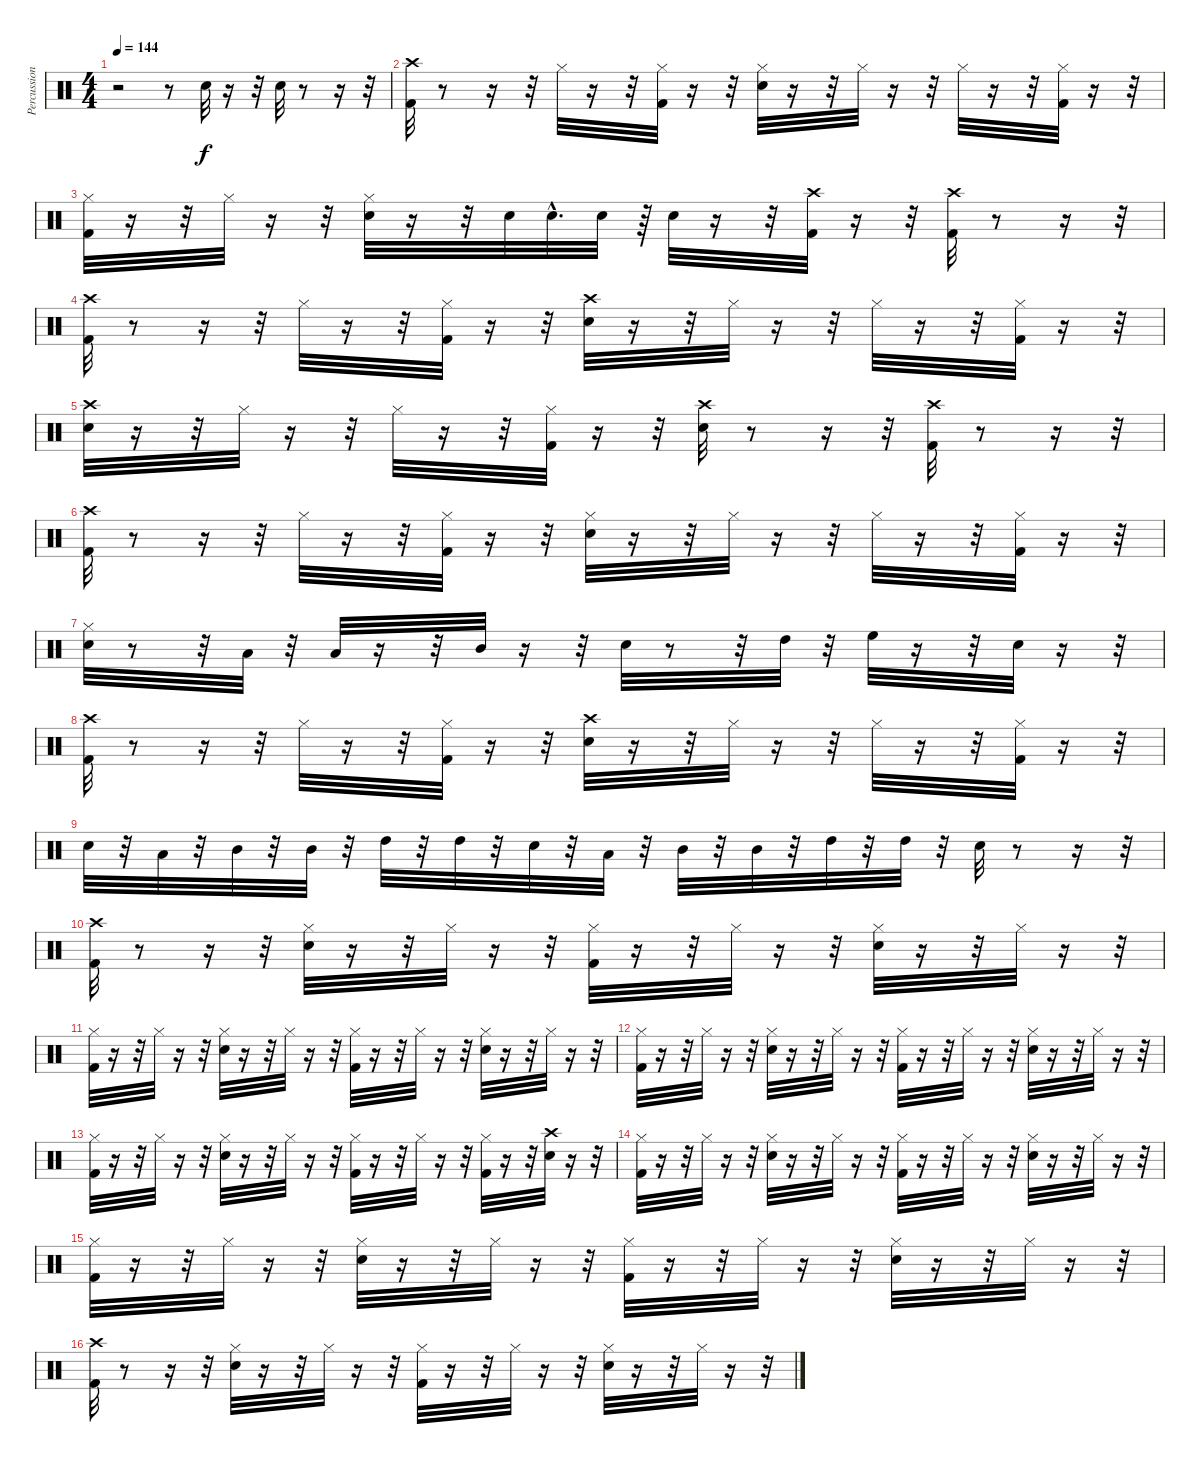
\track ("Percussion" "Percussion") {instrument percussion}
\staff {score}
\articulation defaults
\ts (4 4)
\tempo 144
\clef neutral
\ks c
r.2{dy f} r.8 "Snare (hit) 2".32 r.16 r.32 "Snare (hit) 2".32 r.8 r.16 r.32 |
("Crash high (hit)" "Kick (hit) 2").32 r.8 r.16 r.32 "Hi-Hat (closed)".32 r.16 r.32 ("Hi-Hat (closed)" "Kick (hit) 2").32 r.16 r.32 ("Snare (hit) 2" "Hi-Hat (closed)").32 r.16 r.32 "Hi-Hat (closed)".32 r.16 r.32 "Hi-Hat (closed)".32 r.16 r.32 ("Hi-Hat (closed)" "Kick (hit) 2").32 r.16 r.32 |
("Kick (hit) 2" "Hi-Hat (closed)").32 r.16 r.32 "Hi-Hat (closed)".32 r.16 r.32 ("Hi-Hat (closed)" "Snare (hit) 2").32 r.16 r.32 "Snare (hit) 2".32 "Snare (hit) 2"{hac}.32{d} "Snare (hit) 2".32 r.64 "Snare (hit) 2".32 r.16 r.32 ("Crash high (hit)" "Kick (hit) 2").32 r.16 r.32 ("Crash high (hit)" "Kick (hit) 2").32 r.8 r.16 r.32 |
("Kick (hit) 2" "Crash high (hit)").32 r.8 r.16 r.32 "Hi-Hat (closed)".32 r.16 r.32 ("Hi-Hat (closed)" "Kick (hit) 2").32 r.16 r.32 ("Crash high (hit)" "Snare (hit) 2").32 r.16 r.32 "Hi-Hat (closed)".32 r.16 r.32 "Hi-Hat (closed)".32 r.16 r.32 ("Kick (hit) 2" "Hi-Hat (closed)").32 r.16 r.32 |
("Snare (hit) 2" "Crash high (hit)").32 r.16 r.32 "Hi-Hat (closed)".32 r.16 r.32 "Hi-Hat (closed)".32 r.16 r.32 ("Kick (hit) 2" "Hi-Hat (closed)").32 r.16 r.32 ("Crash high (hit)" "Snare (hit) 2").32 r.8 r.16 r.32 ("Kick (hit) 2" "Crash high (hit)").32 r.8 r.16 r.32 |
("Kick (hit) 2" "Crash high (hit)").32 r.8 r.16 r.32 "Hi-Hat (closed)".32 r.16 r.32 ("Kick (hit) 2" "Hi-Hat (closed)").32 r.16 r.32 ("Hi-Hat (closed)" "Snare (hit) 2").32 r.16 r.32 "Hi-Hat (closed)".32 r.16 r.32 "Hi-Hat (closed)".32 r.16 r.32 ("Kick (hit) 2" "Hi-Hat (closed)").32 r.16 r.32 |
("Snare (hit) 2" "Hi-Hat (closed)").32 r.8 r.32 "Low Tom (hit)".32 r.32 "Low Tom (hit)".32 r.16 r.32 "Mid Tom (hit)".32 r.16 r.32 "Snare (hit) 2".32 r.8 r.32 "High Tom (hit)".32 r.32 "High Floor Tom (hit)".32 r.16 r.32 "Snare (hit) 2".32 r.16 r.32 |
("Kick (hit) 2" "Crash high (hit)").32 r.8 r.16 r.32 "Hi-Hat (closed)".32 r.16 r.32 ("Hi-Hat (closed)" "Kick (hit) 2").32 r.16 r.32 ("Snare (hit) 2" "Crash high (hit)").32 r.16 r.32 "Hi-Hat (closed)".32 r.16 r.32 "Hi-Hat (closed)".32 r.16 r.32 ("Hi-Hat (closed)" "Kick (hit) 2").32 r.16 r.32 |
"Snare (hit) 2".32 r.32 "Low Tom (hit)".32 r.32 "Mid Tom (hit)".32 r.32 "Mid Tom (hit)".32 r.32 "High Tom (hit)".32 r.32 "High Tom (hit)".32 r.32 "Snare (hit) 2".32 r.32 "Low Tom (hit)".32 r.32 "Mid Tom (hit)".32 r.32 "Mid Tom (hit)".32 r.32 "High Tom (hit)".32 r.32 "High Tom (hit)".32 r.32 "Snare (hit) 2".32 r.8 r.16 r.32 |
("Kick (hit) 2" "Crash high (hit)").32 r.8 r.16 r.32 ("Hi-Hat (closed)" "Snare (hit) 2").32 r.16 r.32 "Hi-Hat (closed)".32 r.16 r.32 ("Hi-Hat (closed)" "Kick (hit) 2").32 r.16 r.32 "Hi-Hat (closed)".32 r.16 r.32 ("Snare (hit) 2" "Hi-Hat (closed)").32 r.16 r.32 "Hi-Hat (closed)".32 r.16 r.32 |
("Kick (hit) 2" "Hi-Hat (closed)").32 r.16 r.32 "Hi-Hat (closed)".32 r.16 r.32 ("Snare (hit) 2" "Hi-Hat (closed)").32 r.16 r.32 "Hi-Hat (closed)".32 r.16 r.32 ("Hi-Hat (closed)" "Kick (hit) 2").32 r.16 r.32 "Hi-Hat (closed)".32 r.16 r.32 ("Snare (hit) 2" "Hi-Hat (closed)").32 r.16 r.32 "Hi-Hat (closed)".32 r.16 r.32 |
("Kick (hit) 2" "Hi-Hat (closed)").32 r.16 r.32 "Hi-Hat (closed)".32 r.16 r.32 ("Snare (hit) 2" "Hi-Hat (closed)").32 r.16 r.32 "Hi-Hat (closed)".32 r.16 r.32 ("Hi-Hat (closed)" "Kick (hit) 2").32 r.16 r.32 "Hi-Hat (closed)".32 r.16 r.32 ("Snare (hit) 2" "Hi-Hat (closed)").32 r.16 r.32 "Hi-Hat (closed)".32 r.16 r.32 |
("Kick (hit) 2" "Hi-Hat (closed)").32 r.16 r.32 "Hi-Hat (closed)".32 r.16 r.32 ("Snare (hit) 2" "Hi-Hat (closed)").32 r.16 r.32 "Hi-Hat (closed)".32 r.16 r.32 ("Kick (hit) 2" "Hi-Hat (closed)").32 r.16 r.32 "Hi-Hat (closed)".32 r.16 r.32 ("Kick (hit) 2" "Hi-Hat (closed)").32 r.16 r.32 ("Snare (hit) 2" "Crash high (hit)").32 r.16 r.32 |
("Kick (hit) 2" "Hi-Hat (closed)").32 r.16 r.32 "Hi-Hat (closed)".32 r.16 r.32 ("Snare (hit) 2" "Hi-Hat (closed)").32 r.16 r.32 "Hi-Hat (closed)".32 r.16 r.32 ("Kick (hit) 2" "Hi-Hat (closed)").32 r.16 r.32 "Hi-Hat (closed)".32 r.16 r.32 ("Snare (hit) 2" "Hi-Hat (closed)").32 r.16 r.32 "Hi-Hat (closed)".32 r.16 r.32 |
("Kick (hit) 2" "Hi-Hat (closed)").32 r.16 r.32 "Hi-Hat (closed)".32 r.16 r.32 ("Snare (hit) 2" "Hi-Hat (closed)").32 r.16 r.32 "Hi-Hat (closed)".32 r.16 r.32 ("Kick (hit) 2" "Hi-Hat (closed)").32 r.16 r.32 "Hi-Hat (closed)".32 r.16 r.32 ("Snare (hit) 2" "Hi-Hat (closed)").32 r.16 r.32 "Hi-Hat (closed)".32 r.16 r.32 |
("Kick (hit) 2" "Crash high (hit)").32 r.8 r.16 r.32 ("Hi-Hat (closed)" "Snare (hit) 2").32 r.16 r.32 "Hi-Hat (closed)".32 r.16 r.32 ("Hi-Hat (closed)" "Kick (hit) 2").32 r.16 r.32 "Hi-Hat (closed)".32 r.16 r.32 ("Snare (hit) 2" "Hi-Hat (closed)").32 r.16 r.32 "Hi-Hat (closed)".32 r.16 r.32
